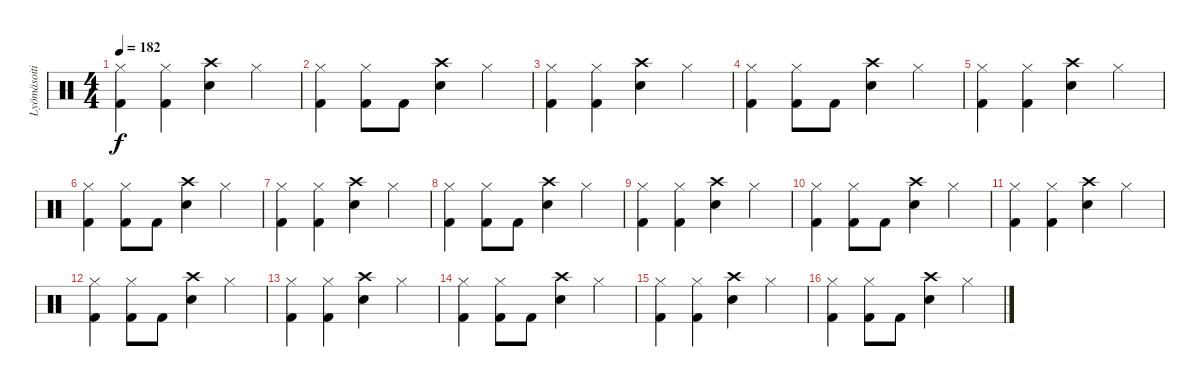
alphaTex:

\track ("Lyömäsoitin" "Lyömäsoiti") {instrument percussion}
\staff {score}
\articulation defaults
\ts (4 4)
\tempo 182
\clef neutral
\ks c
("Hi-Hat (closed)" "Kick (hit) 2").4{dy f} ("Hi-Hat (closed)" "Kick (hit) 2").4 ("Crash high (hit)" "Electric Snare (hit)").4 "Hi-Hat (closed)".4 |
("Hi-Hat (closed)" "Kick (hit) 2").4 ("Hi-Hat (closed)" "Kick (hit) 2").8 "Kick (hit) 2".8 ("Crash high (hit)" "Electric Snare (hit)").4 "Hi-Hat (closed)".4 |
("Hi-Hat (closed)" "Kick (hit) 2").4 ("Hi-Hat (closed)" "Kick (hit) 2").4 ("Crash high (hit)" "Electric Snare (hit)").4 "Hi-Hat (closed)".4 |
("Hi-Hat (closed)" "Kick (hit) 2").4 ("Hi-Hat (closed)" "Kick (hit) 2").8 "Kick (hit) 2".8 ("Crash high (hit)" "Electric Snare (hit)").4 "Hi-Hat (closed)".4 |
("Hi-Hat (closed)" "Kick (hit) 2").4 ("Hi-Hat (closed)" "Kick (hit) 2").4 ("Crash high (hit)" "Electric Snare (hit)").4 "Hi-Hat (closed)".4 |
("Hi-Hat (closed)" "Kick (hit) 2").4 ("Hi-Hat (closed)" "Kick (hit) 2").8 "Kick (hit) 2".8 ("Crash high (hit)" "Electric Snare (hit)").4 "Hi-Hat (closed)".4 |
("Hi-Hat (closed)" "Kick (hit) 2").4 ("Hi-Hat (closed)" "Kick (hit) 2").4 ("Crash high (hit)" "Electric Snare (hit)").4 "Hi-Hat (closed)".4 |
("Hi-Hat (closed)" "Kick (hit) 2").4 ("Hi-Hat (closed)" "Kick (hit) 2").8 "Kick (hit) 2".8 ("Crash high (hit)" "Electric Snare (hit)").4 "Hi-Hat (closed)".4 |
("Hi-Hat (closed)" "Kick (hit) 2").4 ("Hi-Hat (closed)" "Kick (hit) 2").4 ("Crash high (hit)" "Electric Snare (hit)").4 "Hi-Hat (closed)".4 |
("Hi-Hat (closed)" "Kick (hit) 2").4 ("Hi-Hat (closed)" "Kick (hit) 2").8 "Kick (hit) 2".8 ("Crash high (hit)" "Electric Snare (hit)").4 "Hi-Hat (closed)".4 |
("Hi-Hat (closed)" "Kick (hit) 2").4 ("Hi-Hat (closed)" "Kick (hit) 2").4 ("Crash high (hit)" "Electric Snare (hit)").4 "Hi-Hat (closed)".4 |
("Hi-Hat (closed)" "Kick (hit) 2").4 ("Hi-Hat (closed)" "Kick (hit) 2").8 "Kick (hit) 2".8 ("Crash high (hit)" "Electric Snare (hit)").4 "Hi-Hat (closed)".4 |
("Hi-Hat (closed)" "Kick (hit) 2").4 ("Hi-Hat (closed)" "Kick (hit) 2").4 ("Crash high (hit)" "Electric Snare (hit)").4 "Hi-Hat (closed)".4 |
("Hi-Hat (closed)" "Kick (hit) 2").4 ("Hi-Hat (closed)" "Kick (hit) 2").8 "Kick (hit) 2".8 ("Crash high (hit)" "Electric Snare (hit)").4 "Hi-Hat (closed)".4 |
("Hi-Hat (closed)" "Kick (hit) 2").4 ("Hi-Hat (closed)" "Kick (hit) 2").4 ("Crash high (hit)" "Electric Snare (hit)").4 "Hi-Hat (closed)".4 |
("Hi-Hat (closed)" "Kick (hit) 2").4 ("Hi-Hat (closed)" "Kick (hit) 2").8 "Kick (hit) 2".8 ("Crash high (hit)" "Electric Snare (hit)").4 "Hi-Hat (closed)".4
